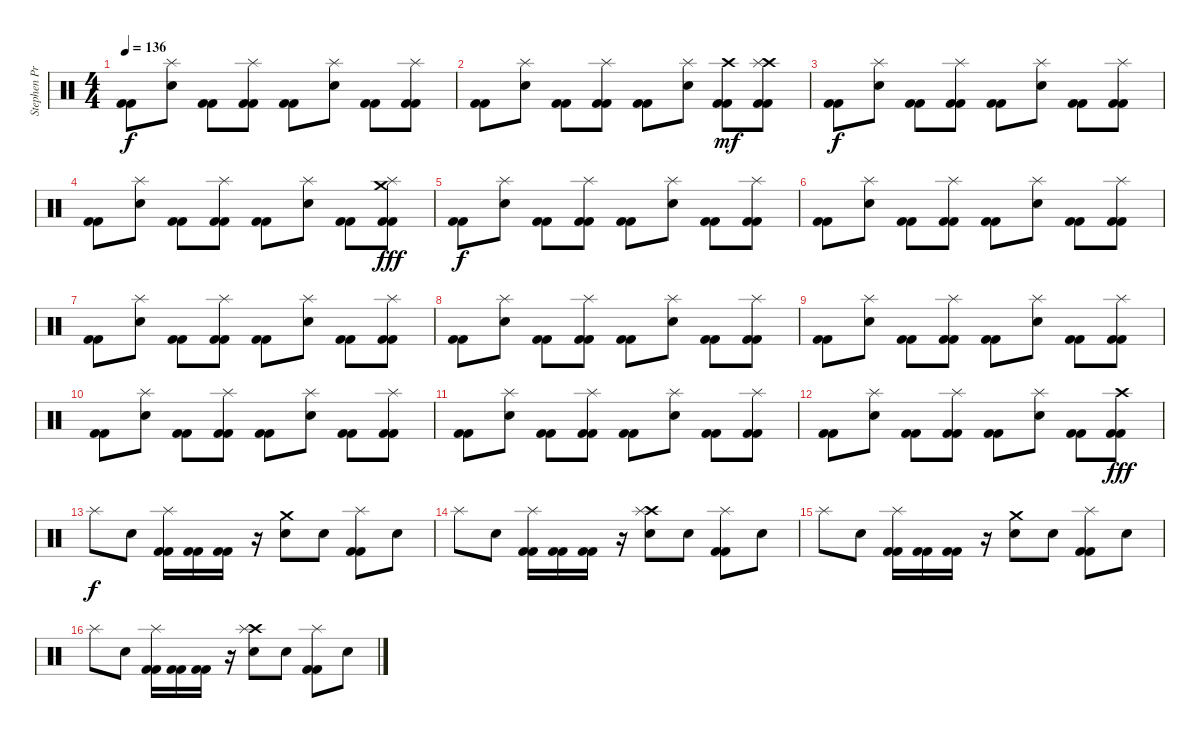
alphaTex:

\track ("Stephen Priestly  (Drums)" "Stephen Pr") {instrument percussion}
\staff {score}
\articulation defaults
\ts (4 4)
\tempo 136
\clef neutral
\ks c
("Kick (hit) 2" "Kick (hit) 2").8{dy f} ("Electric Snare (hit)" "Splash (hit)").8 ("Kick (hit) 2" "Kick (hit) 2").8 ("Splash (hit)" "Kick (hit) 2" "Kick (hit) 2").8 ("Kick (hit) 2" "Kick (hit) 2").8 ("Electric Snare (hit)" "Splash (hit)").8 ("Kick (hit) 2" "Kick (hit) 2").8 ("Splash (hit)" "Kick (hit) 2" "Kick (hit) 2").8 |
("Kick (hit) 2" "Kick (hit) 2").8 ("Electric Snare (hit)" "Splash (hit)").8 ("Kick (hit) 2" "Kick (hit) 2").8 ("Splash (hit)" "Kick (hit) 2" "Kick (hit) 2").8 ("Kick (hit) 2" "Kick (hit) 2").8 ("Electric Snare (hit)" "Splash (hit)").8 ("Crash high (hit)" "Kick (hit) 2" "Kick (hit) 2").8{dy mf} ("Crash high (hit)" "Splash (hit)" "Kick (hit) 2" "Kick (hit) 2").8 |
("Kick (hit) 2" "Kick (hit) 2").8{dy f} ("Electric Snare (hit)" "Splash (hit)").8 ("Kick (hit) 2" "Kick (hit) 2").8 ("Splash (hit)" "Kick (hit) 2" "Kick (hit) 2").8 ("Kick (hit) 2" "Kick (hit) 2").8 ("Electric Snare (hit)" "Splash (hit)").8 ("Kick (hit) 2" "Kick (hit) 2").8 ("Splash (hit)" "Kick (hit) 2" "Kick (hit) 2").8 |
("Kick (hit) 2" "Kick (hit) 2").8 ("Electric Snare (hit)" "Splash (hit)").8 ("Kick (hit) 2" "Kick (hit) 2").8 ("Splash (hit)" "Kick (hit) 2" "Kick (hit) 2").8 ("Kick (hit) 2" "Kick (hit) 2").8 ("Electric Snare (hit)" "Splash (hit)").8 ("Kick (hit) 2" "Kick (hit) 2").8 ("Crash medium (hit)" "Splash (hit)" "Kick (hit) 2" "Kick (hit) 2").8{dy fff} |
("Kick (hit) 2" "Kick (hit) 2").8{dy f} ("Electric Snare (hit)" "Splash (hit)").8 ("Kick (hit) 2" "Kick (hit) 2").8 ("Splash (hit)" "Kick (hit) 2" "Kick (hit) 2").8 ("Kick (hit) 2" "Kick (hit) 2").8 ("Electric Snare (hit)" "Splash (hit)").8 ("Kick (hit) 2" "Kick (hit) 2").8 ("Splash (hit)" "Kick (hit) 2" "Kick (hit) 2").8 |
("Kick (hit) 2" "Kick (hit) 2").8 ("Electric Snare (hit)" "Splash (hit)").8 ("Kick (hit) 2" "Kick (hit) 2").8 ("Splash (hit)" "Kick (hit) 2" "Kick (hit) 2").8 ("Kick (hit) 2" "Kick (hit) 2").8 ("Electric Snare (hit)" "Splash (hit)").8 ("Kick (hit) 2" "Kick (hit) 2").8 ("Splash (hit)" "Kick (hit) 2" "Kick (hit) 2").8 |
("Kick (hit) 2" "Kick (hit) 2").8 ("Electric Snare (hit)" "Splash (hit)").8 ("Kick (hit) 2" "Kick (hit) 2").8 ("Splash (hit)" "Kick (hit) 2" "Kick (hit) 2").8 ("Kick (hit) 2" "Kick (hit) 2").8 ("Electric Snare (hit)" "Splash (hit)").8 ("Kick (hit) 2" "Kick (hit) 2").8 ("Splash (hit)" "Kick (hit) 2" "Kick (hit) 2").8 |
("Kick (hit) 2" "Kick (hit) 2").8 ("Electric Snare (hit)" "Splash (hit)").8 ("Kick (hit) 2" "Kick (hit) 2").8 ("Splash (hit)" "Kick (hit) 2" "Kick (hit) 2").8 ("Kick (hit) 2" "Kick (hit) 2").8 ("Electric Snare (hit)" "Splash (hit)").8 ("Kick (hit) 2" "Kick (hit) 2").8 ("Splash (hit)" "Kick (hit) 2" "Kick (hit) 2").8 |
("Kick (hit) 2" "Kick (hit) 2").8 ("Electric Snare (hit)" "Splash (hit)").8 ("Kick (hit) 2" "Kick (hit) 2").8 ("Splash (hit)" "Kick (hit) 2" "Kick (hit) 2").8 ("Kick (hit) 2" "Kick (hit) 2").8 ("Electric Snare (hit)" "Splash (hit)").8 ("Kick (hit) 2" "Kick (hit) 2").8 ("Splash (hit)" "Kick (hit) 2" "Kick (hit) 2").8 |
("Kick (hit) 2" "Kick (hit) 2").8 ("Electric Snare (hit)" "Splash (hit)").8 ("Kick (hit) 2" "Kick (hit) 2").8 ("Splash (hit)" "Kick (hit) 2" "Kick (hit) 2").8 ("Kick (hit) 2" "Kick (hit) 2").8 ("Electric Snare (hit)" "Splash (hit)").8 ("Kick (hit) 2" "Kick (hit) 2").8 ("Splash (hit)" "Kick (hit) 2" "Kick (hit) 2").8 |
("Kick (hit) 2" "Kick (hit) 2").8 ("Electric Snare (hit)" "Splash (hit)").8 ("Kick (hit) 2" "Kick (hit) 2").8 ("Splash (hit)" "Kick (hit) 2" "Kick (hit) 2").8 ("Kick (hit) 2" "Kick (hit) 2").8 ("Electric Snare (hit)" "Splash (hit)").8 ("Kick (hit) 2" "Kick (hit) 2").8 ("Splash (hit)" "Kick (hit) 2" "Kick (hit) 2").8 |
("Kick (hit) 2" "Kick (hit) 2").8 ("Electric Snare (hit)" "Splash (hit)").8 ("Kick (hit) 2" "Kick (hit) 2").8 ("Splash (hit)" "Kick (hit) 2" "Kick (hit) 2").8 ("Kick (hit) 2" "Kick (hit) 2").8 ("Electric Snare (hit)" "Splash (hit)").8 ("Kick (hit) 2" "Kick (hit) 2").8 ("Crash high (hit)" "Kick (hit) 2" "Kick (hit) 2").8{dy fff} |
"Splash (hit)".8{dy f} "Snare (hit)".8 ("Splash (hit)" "Kick (hit) 2" "Kick (hit) 2").16 ("Kick (hit) 2" "Kick (hit) 2").16 ("Kick (hit) 2" "Kick (hit) 2").16 r.16 ("Crash medium (hit)" "Electric Snare (hit)").8 "Snare (hit)".8 ("Splash (hit)" "Kick (hit) 2" "Kick (hit) 2").8 "Snare (hit)".8 |
"Splash (hit)".8 "Snare (hit)".8 ("Splash (hit)" "Kick (hit) 2" "Kick (hit) 2").16 ("Kick (hit) 2" "Kick (hit) 2").16 ("Kick (hit) 2" "Kick (hit) 2").16 r.16 ("Crash high (hit)" "Splash (hit)" "Electric Snare (hit)").8 "Snare (hit)".8 ("Splash (hit)" "Kick (hit) 2" "Kick (hit) 2").8 "Snare (hit)".8 |
"Splash (hit)".8 "Snare (hit)".8 ("Splash (hit)" "Kick (hit) 2" "Kick (hit) 2").16 ("Kick (hit) 2" "Kick (hit) 2").16 ("Kick (hit) 2" "Kick (hit) 2").16 r.16 ("Crash medium (hit)" "Electric Snare (hit)").8 "Snare (hit)".8 ("Splash (hit)" "Kick (hit) 2" "Kick (hit) 2").8 "Snare (hit)".8 |
"Splash (hit)".8 "Snare (hit)".8 ("Splash (hit)" "Kick (hit) 2" "Kick (hit) 2").16 ("Kick (hit) 2" "Kick (hit) 2").16 ("Kick (hit) 2" "Kick (hit) 2").16 r.16 ("Crash high (hit)" "Splash (hit)" "Electric Snare (hit)").8 "Snare (hit)".8 ("Splash (hit)" "Kick (hit) 2" "Kick (hit) 2").8 "Snare (hit)".8
